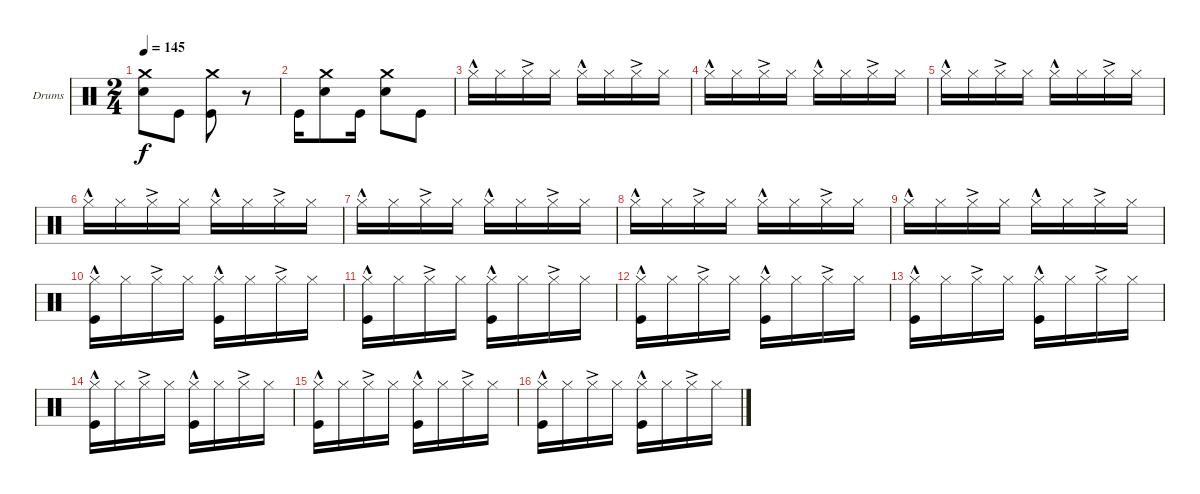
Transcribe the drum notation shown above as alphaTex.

\bracketExtendMode groupsimilarinstruments
\firstSystemTrackNameOrientation horizontal
\otherSystemsTrackNameOrientation horizontal
\track ("Drumkit" "Drums") {instrument percussion}
\staff {score}
\articulation defaults
\ts (2 4)
\tempo 145
\clef neutral
\ks c
("Snare (hit) 2" "Crash medium (hit)").8{dy f} "Kick (hit)".8 ("Kick (hit)" "Crash medium (hit)").8 r.8 |
"Kick (hit)".16 ("Snare (hit) 2" "Crash medium (hit)").8 "Kick (hit)".16 ("Snare (hit) 2" "Crash medium (hit)").8 "Kick (hit)".8 |
"Hi-Hat (closed)"{hac}.16 "Hi-Hat (closed)".16 "Hi-Hat (closed)"{ac}.16 "Hi-Hat (closed)".16 "Hi-Hat (closed)"{hac}.16 "Hi-Hat (closed)".16 "Hi-Hat (closed)"{ac}.16 "Hi-Hat (closed)".16 |
"Hi-Hat (closed)"{hac}.16 "Hi-Hat (closed)".16 "Hi-Hat (closed)"{ac}.16 "Hi-Hat (closed)".16 "Hi-Hat (closed)"{hac}.16 "Hi-Hat (closed)".16 "Hi-Hat (closed)"{ac}.16 "Hi-Hat (closed)".16 |
"Hi-Hat (closed)"{hac}.16 "Hi-Hat (closed)".16 "Hi-Hat (closed)"{ac}.16 "Hi-Hat (closed)".16 "Hi-Hat (closed)"{hac}.16 "Hi-Hat (closed)".16 "Hi-Hat (closed)"{ac}.16 "Hi-Hat (closed)".16 |
"Hi-Hat (closed)"{hac}.16 "Hi-Hat (closed)".16 "Hi-Hat (closed)"{ac}.16 "Hi-Hat (closed)".16 "Hi-Hat (closed)"{hac}.16 "Hi-Hat (closed)".16 "Hi-Hat (closed)"{ac}.16 "Hi-Hat (closed)".16 |
"Hi-Hat (closed)"{hac}.16 "Hi-Hat (closed)".16 "Hi-Hat (closed)"{ac}.16 "Hi-Hat (closed)".16 "Hi-Hat (closed)"{hac}.16 "Hi-Hat (closed)".16 "Hi-Hat (closed)"{ac}.16 "Hi-Hat (closed)".16 |
"Hi-Hat (closed)"{hac}.16 "Hi-Hat (closed)".16 "Hi-Hat (closed)"{ac}.16 "Hi-Hat (closed)".16 "Hi-Hat (closed)"{hac}.16 "Hi-Hat (closed)".16 "Hi-Hat (closed)"{ac}.16 "Hi-Hat (closed)".16 |
"Hi-Hat (closed)"{hac}.16 "Hi-Hat (closed)".16 "Hi-Hat (closed)"{ac}.16 "Hi-Hat (closed)".16 "Hi-Hat (closed)"{hac}.16 "Hi-Hat (closed)".16 "Hi-Hat (closed)"{ac}.16 "Hi-Hat (closed)".16 |
("Hi-Hat (closed)"{hac} "Kick (hit)").16 "Hi-Hat (closed)".16 "Hi-Hat (closed)"{ac}.16 "Hi-Hat (closed)".16 ("Hi-Hat (closed)"{hac} "Kick (hit)").16 "Hi-Hat (closed)".16 "Hi-Hat (closed)"{ac}.16 "Hi-Hat (closed)".16 |
("Hi-Hat (closed)"{hac} "Kick (hit)").16 "Hi-Hat (closed)".16 "Hi-Hat (closed)"{ac}.16 "Hi-Hat (closed)".16 ("Hi-Hat (closed)"{hac} "Kick (hit)").16 "Hi-Hat (closed)".16 "Hi-Hat (closed)"{ac}.16 "Hi-Hat (closed)".16 |
("Hi-Hat (closed)"{hac} "Kick (hit)").16 "Hi-Hat (closed)".16 "Hi-Hat (closed)"{ac}.16 "Hi-Hat (closed)".16 ("Hi-Hat (closed)"{hac} "Kick (hit)").16 "Hi-Hat (closed)".16 "Hi-Hat (closed)"{ac}.16 "Hi-Hat (closed)".16 |
("Hi-Hat (closed)"{hac} "Kick (hit)").16 "Hi-Hat (closed)".16 "Hi-Hat (closed)"{ac}.16 "Hi-Hat (closed)".16 ("Hi-Hat (closed)"{hac} "Kick (hit)").16 "Hi-Hat (closed)".16 "Hi-Hat (closed)"{ac}.16 "Hi-Hat (closed)".16 |
("Hi-Hat (closed)"{hac} "Kick (hit)").16 "Hi-Hat (closed)".16 "Hi-Hat (closed)"{ac}.16 "Hi-Hat (closed)".16 ("Hi-Hat (closed)"{hac} "Kick (hit)").16 "Hi-Hat (closed)".16 "Hi-Hat (closed)"{ac}.16 "Hi-Hat (closed)".16 |
("Hi-Hat (closed)"{hac} "Kick (hit)").16 "Hi-Hat (closed)".16 "Hi-Hat (closed)"{ac}.16 "Hi-Hat (closed)".16 ("Hi-Hat (closed)"{hac} "Kick (hit)").16 "Hi-Hat (closed)".16 "Hi-Hat (closed)"{ac}.16 "Hi-Hat (closed)".16 |
("Hi-Hat (closed)"{hac} "Kick (hit)").16 "Hi-Hat (closed)".16 "Hi-Hat (closed)"{ac}.16 "Hi-Hat (closed)".16 ("Hi-Hat (closed)"{hac} "Kick (hit)").16 "Hi-Hat (closed)".16 "Hi-Hat (closed)"{ac}.16 "Hi-Hat (closed)".16
